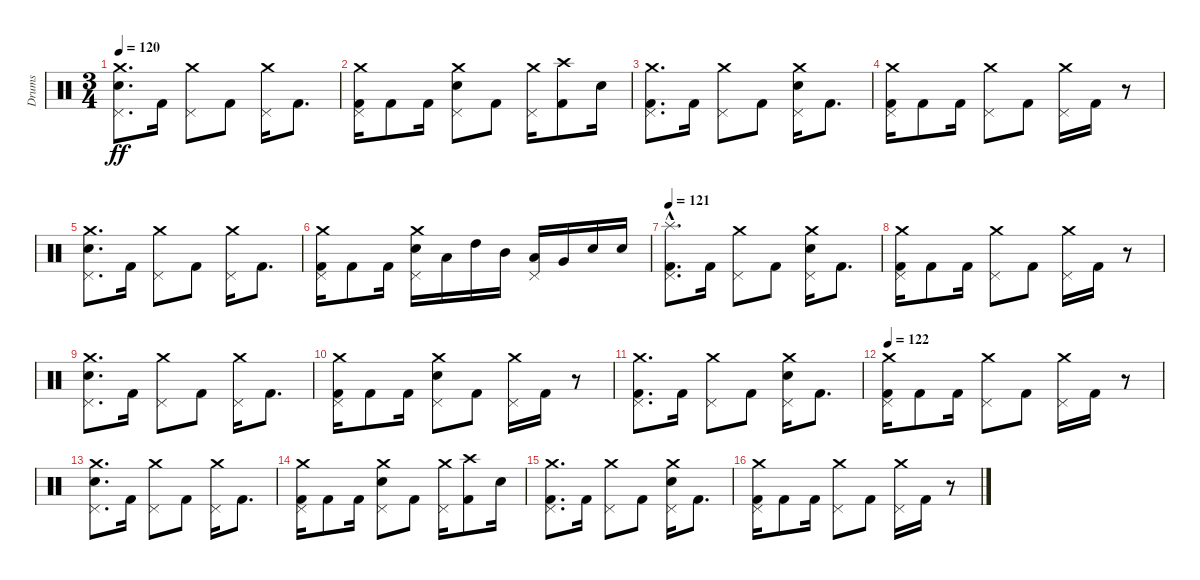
\track ("Drums" "Drums") {instrument percussion}
\staff {score}
\articulation defaults
\ts (3 4)
\tempo 120
\clef neutral
\ks c
("Crash medium (hit)" "Pedal Hi-Hat (hit)" "Electric Snare (hit)").8{d dy ff} "Kick (hit) 2".16 ("Crash medium (hit)" "Pedal Hi-Hat (hit)").8 "Kick (hit) 2".8 ("Crash medium (hit)" "Pedal Hi-Hat (hit)").16 "Kick (hit) 2".8{d} |
("Crash medium (hit)" "Pedal Hi-Hat (hit)" "Kick (hit) 2").16 "Kick (hit) 2".8 "Kick (hit) 2".16 ("Crash medium (hit)" "Pedal Hi-Hat (hit)" "Electric Snare (hit)").8 "Kick (hit) 2".8 ("Crash medium (hit)" "Pedal Hi-Hat (hit)").16 ("Crash high (hit)" "Kick (hit) 2").8 "Electric Snare (hit)".16 |
("Crash medium (hit)" "Pedal Hi-Hat (hit)" "Kick (hit) 2").8{d} "Kick (hit) 2".16 ("Crash medium (hit)" "Pedal Hi-Hat (hit)").8 "Kick (hit) 2".8 ("Crash medium (hit)" "Pedal Hi-Hat (hit)" "Electric Snare (hit)").16 "Kick (hit) 2".8{d} |
("Crash medium (hit)" "Pedal Hi-Hat (hit)" "Kick (hit) 2").16 "Kick (hit) 2".8 "Kick (hit) 2".16 ("Crash medium (hit)" "Pedal Hi-Hat (hit)").8 "Kick (hit) 2".8 ("Crash medium (hit)" "Pedal Hi-Hat (hit)").16 "Kick (hit) 2".16 r.8 |
("Crash medium (hit)" "Pedal Hi-Hat (hit)" "Electric Snare (hit)").8{d} "Kick (hit) 2".16 ("Crash medium (hit)" "Pedal Hi-Hat (hit)").8 "Kick (hit) 2".8 ("Crash medium (hit)" "Pedal Hi-Hat (hit)").16 "Kick (hit) 2".8{d} |
("Crash medium (hit)" "Pedal Hi-Hat (hit)" "Kick (hit) 2").16 "Kick (hit) 2".8 "Kick (hit) 2".16 ("Crash medium (hit)" "Pedal Hi-Hat (hit)" "Electric Snare (hit)").16 "Low Tom (hit)".16 "High Tom (hit)".16 "Mid Tom (hit)".16 ("Pedal Hi-Hat (hit)" "Low Tom (hit)").16 "Very Low Tom (hit)".16 "Electric Snare (hit)".16 "Electric Snare (hit)".16 |
\tempo 121
("Splash (hit)"{hac} "Pedal Hi-Hat (hit)" "Kick (hit) 2").8{d} "Kick (hit) 2".16 ("Crash medium (hit)" "Pedal Hi-Hat (hit)").8 "Kick (hit) 2".8 ("Crash medium (hit)" "Pedal Hi-Hat (hit)" "Electric Snare (hit)").16 "Kick (hit) 2".8{d} |
("Crash medium (hit)" "Pedal Hi-Hat (hit)" "Kick (hit) 2").16 "Kick (hit) 2".8 "Kick (hit) 2".16 ("Crash medium (hit)" "Pedal Hi-Hat (hit)").8 "Kick (hit) 2".8 ("Crash medium (hit)" "Pedal Hi-Hat (hit)").16 "Kick (hit) 2".16 r.8 |
("Crash medium (hit)" "Pedal Hi-Hat (hit)" "Electric Snare (hit)").8{d} "Kick (hit) 2".16 ("Crash medium (hit)" "Pedal Hi-Hat (hit)").8 "Kick (hit) 2".8 ("Crash medium (hit)" "Pedal Hi-Hat (hit)").16 "Kick (hit) 2".8{d} |
("Crash medium (hit)" "Pedal Hi-Hat (hit)" "Kick (hit) 2").16 "Kick (hit) 2".8 "Kick (hit) 2".16 ("Crash medium (hit)" "Pedal Hi-Hat (hit)" "Electric Snare (hit)").8 "Kick (hit) 2".8 ("Crash medium (hit)" "Pedal Hi-Hat (hit)").16 "Kick (hit) 2".16 r.8 |
("Crash medium (hit)" "Pedal Hi-Hat (hit)" "Kick (hit) 2").8{d} "Kick (hit) 2".16 ("Crash medium (hit)" "Pedal Hi-Hat (hit)").8 "Kick (hit) 2".8 ("Crash medium (hit)" "Pedal Hi-Hat (hit)" "Electric Snare (hit)").16 "Kick (hit) 2".8{d} |
\tempo 122
("Crash medium (hit)" "Pedal Hi-Hat (hit)" "Kick (hit) 2").16 "Kick (hit) 2".8 "Kick (hit) 2".16 ("Crash medium (hit)" "Pedal Hi-Hat (hit)").8 "Kick (hit) 2".8 ("Crash medium (hit)" "Pedal Hi-Hat (hit)").16 "Kick (hit) 2".16 r.8 |
("Crash medium (hit)" "Pedal Hi-Hat (hit)" "Electric Snare (hit)").8{d} "Kick (hit) 2".16 ("Crash medium (hit)" "Pedal Hi-Hat (hit)").8 "Kick (hit) 2".8 ("Crash medium (hit)" "Pedal Hi-Hat (hit)").16 "Kick (hit) 2".8{d} |
("Crash medium (hit)" "Pedal Hi-Hat (hit)" "Kick (hit) 2").16 "Kick (hit) 2".8 "Kick (hit) 2".16 ("Crash medium (hit)" "Pedal Hi-Hat (hit)" "Electric Snare (hit)").8 "Kick (hit) 2".8 ("Crash medium (hit)" "Pedal Hi-Hat (hit)").16 ("Crash high (hit)" "Kick (hit) 2").8 "Electric Snare (hit)".16 |
("Crash medium (hit)" "Pedal Hi-Hat (hit)" "Kick (hit) 2").8{d} "Kick (hit) 2".16 ("Crash medium (hit)" "Pedal Hi-Hat (hit)").8 "Kick (hit) 2".8 ("Crash medium (hit)" "Pedal Hi-Hat (hit)" "Electric Snare (hit)").16 "Kick (hit) 2".8{d} |
("Crash medium (hit)" "Pedal Hi-Hat (hit)" "Kick (hit) 2").16 "Kick (hit) 2".8 "Kick (hit) 2".16 ("Crash medium (hit)" "Pedal Hi-Hat (hit)").8 "Kick (hit) 2".8 ("Crash medium (hit)" "Pedal Hi-Hat (hit)").16 "Kick (hit) 2".16 r.8
